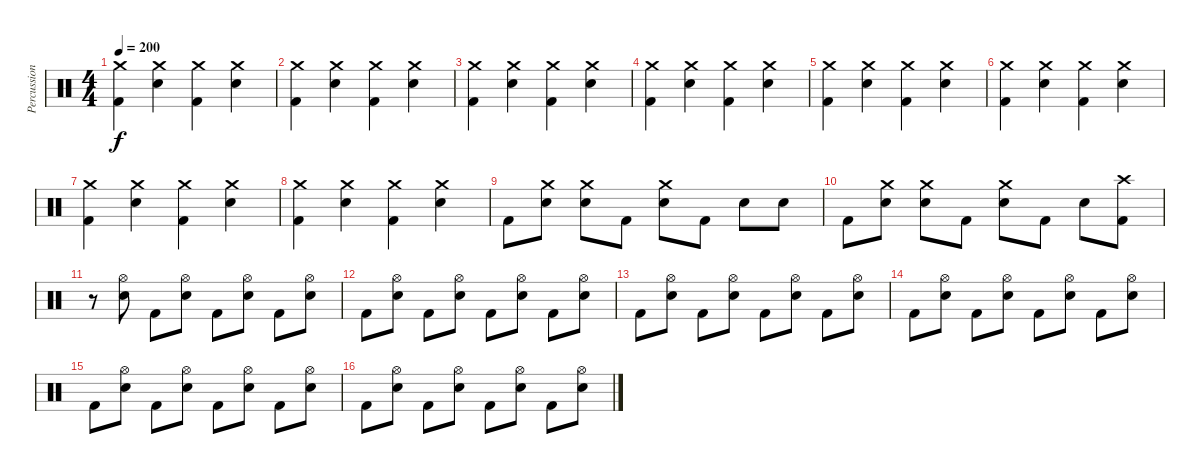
\track ("Percussion" "Percussion") {instrument percussion}
\staff {score}
\articulation defaults
\ts (4 4)
\tempo 200
\clef neutral
\ks c
("Crash medium (hit)" "Kick (hit) 2").4{dy f} ("Crash medium (hit)" "Electric Snare (hit)").4 ("Crash medium (hit)" "Kick (hit) 2").4 ("Crash medium (hit)" "Electric Snare (hit)").4 |
("Crash medium (hit)" "Kick (hit) 2").4 ("Crash medium (hit)" "Electric Snare (hit)").4 ("Crash medium (hit)" "Kick (hit) 2").4 ("Crash medium (hit)" "Electric Snare (hit)").4 |
("Crash medium (hit)" "Kick (hit) 2").4 ("Crash medium (hit)" "Electric Snare (hit)").4 ("Crash medium (hit)" "Kick (hit) 2").4 ("Crash medium (hit)" "Electric Snare (hit)").4 |
("Crash medium (hit)" "Kick (hit) 2").4 ("Crash medium (hit)" "Electric Snare (hit)").4 ("Crash medium (hit)" "Kick (hit) 2").4 ("Crash medium (hit)" "Electric Snare (hit)").4 |
("Crash medium (hit)" "Kick (hit) 2").4 ("Crash medium (hit)" "Electric Snare (hit)").4 ("Crash medium (hit)" "Kick (hit) 2").4 ("Crash medium (hit)" "Electric Snare (hit)").4 |
("Crash medium (hit)" "Kick (hit) 2").4 ("Crash medium (hit)" "Electric Snare (hit)").4 ("Crash medium (hit)" "Kick (hit) 2").4 ("Crash medium (hit)" "Electric Snare (hit)").4 |
("Crash medium (hit)" "Kick (hit) 2").4 ("Crash medium (hit)" "Electric Snare (hit)").4 ("Crash medium (hit)" "Kick (hit) 2").4 ("Crash medium (hit)" "Electric Snare (hit)").4 |
("Crash medium (hit)" "Kick (hit) 2").4 ("Crash medium (hit)" "Electric Snare (hit)").4 ("Crash medium (hit)" "Kick (hit) 2").4 ("Crash medium (hit)" "Electric Snare (hit)").4 |
"Kick (hit) 2".8 ("Crash medium (hit)" "Electric Snare (hit)").8 ("Crash medium (hit)" "Electric Snare (hit)").8 "Kick (hit) 2".8 ("Crash medium (hit)" "Electric Snare (hit)").8 "Kick (hit) 2".8 "Electric Snare (hit)".8 "Electric Snare (hit)".8 |
"Kick (hit) 2".8 ("Crash medium (hit)" "Electric Snare (hit)").8 ("Crash medium (hit)" "Electric Snare (hit)").8 "Kick (hit) 2".8 ("Crash medium (hit)" "Electric Snare (hit)").8 "Kick (hit) 2".8 "Electric Snare (hit)".8 ("Crash high (hit)" "Kick (hit) 2").8 |
r.8 ("Hi-Hat (open)" "Electric Snare (hit)").8 "Kick (hit) 2".8 ("Hi-Hat (open)" "Electric Snare (hit)").8 "Kick (hit) 2".8 ("Hi-Hat (open)" "Electric Snare (hit)").8 "Kick (hit) 2".8 ("Hi-Hat (open)" "Electric Snare (hit)").8 |
"Kick (hit) 2".8 ("Hi-Hat (open)" "Electric Snare (hit)").8 "Kick (hit) 2".8 ("Hi-Hat (open)" "Electric Snare (hit)").8 "Kick (hit) 2".8 ("Hi-Hat (open)" "Electric Snare (hit)").8 "Kick (hit) 2".8 ("Hi-Hat (open)" "Electric Snare (hit)").8 |
"Kick (hit) 2".8 ("Hi-Hat (open)" "Electric Snare (hit)").8 "Kick (hit) 2".8 ("Hi-Hat (open)" "Electric Snare (hit)").8 "Kick (hit) 2".8 ("Hi-Hat (open)" "Electric Snare (hit)").8 "Kick (hit) 2".8 ("Hi-Hat (open)" "Electric Snare (hit)").8 |
"Kick (hit) 2".8 ("Hi-Hat (open)" "Electric Snare (hit)").8 "Kick (hit) 2".8 ("Hi-Hat (open)" "Electric Snare (hit)").8 "Kick (hit) 2".8 ("Hi-Hat (open)" "Electric Snare (hit)").8 "Kick (hit) 2".8 ("Hi-Hat (open)" "Electric Snare (hit)").8 |
"Kick (hit) 2".8 ("Hi-Hat (open)" "Electric Snare (hit)").8 "Kick (hit) 2".8 ("Hi-Hat (open)" "Electric Snare (hit)").8 "Kick (hit) 2".8 ("Hi-Hat (open)" "Electric Snare (hit)").8 "Kick (hit) 2".8 ("Hi-Hat (open)" "Electric Snare (hit)").8 |
"Kick (hit) 2".8 ("Hi-Hat (open)" "Electric Snare (hit)").8 "Kick (hit) 2".8 ("Hi-Hat (open)" "Electric Snare (hit)").8 "Kick (hit) 2".8 ("Hi-Hat (open)" "Electric Snare (hit)").8 "Kick (hit) 2".8 ("Hi-Hat (open)" "Electric Snare (hit)").8
